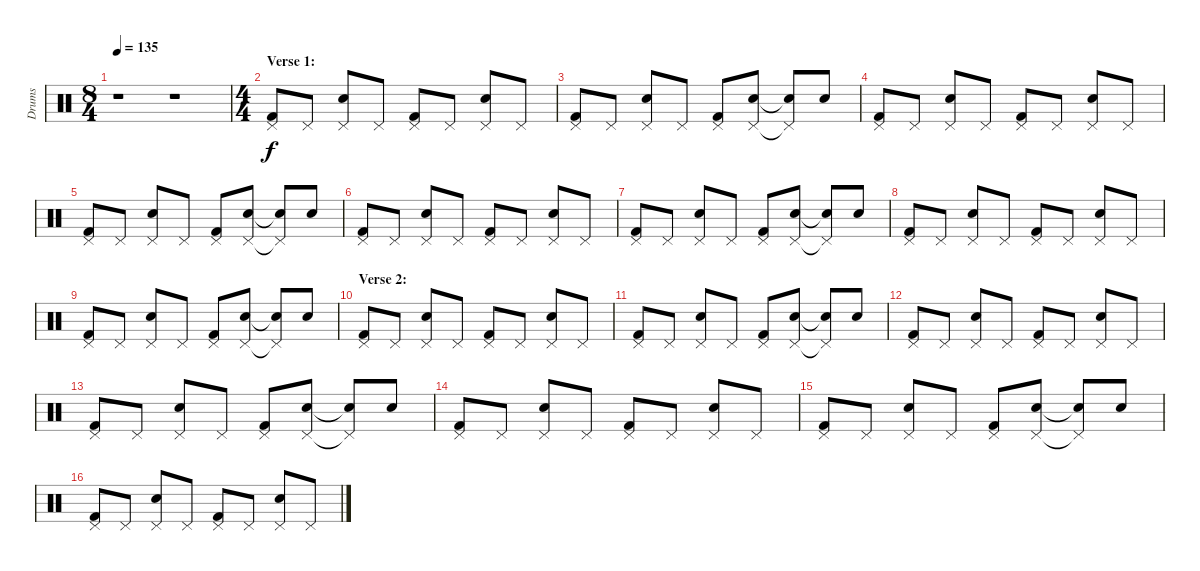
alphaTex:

\track ("Drums" "Drums") {instrument percussion}
\staff {score}
\articulation defaults
\ts (8 4)
\tempo 135
\clef neutral
\ks c
r.1{dy f} r.1 |
\ts (4 4)
\section ("" "Verse 1:")
("Pedal Hi-Hat (hit)" "Kick (hit) 2").8 "Pedal Hi-Hat (hit)".8 ("Pedal Hi-Hat (hit)" "Snare (hit) 2").8 "Pedal Hi-Hat (hit)".8 ("Pedal Hi-Hat (hit)" "Kick (hit) 2").8 "Pedal Hi-Hat (hit)".8 ("Pedal Hi-Hat (hit)" "Snare (hit) 2").8 "Pedal Hi-Hat (hit)".8 |
("Pedal Hi-Hat (hit)" "Kick (hit) 2").8 "Pedal Hi-Hat (hit)".8 ("Pedal Hi-Hat (hit)" "Snare (hit) 2").8 "Pedal Hi-Hat (hit)".8 ("Pedal Hi-Hat (hit)" "Kick (hit) 2").8 ("Pedal Hi-Hat (hit)" "Snare (hit) 2").8 ("Pedal Hi-Hat (hit)"{t} "Snare (hit)"{t}).8 "Snare (hit) 2".8 |
("Pedal Hi-Hat (hit)" "Kick (hit) 2").8 "Pedal Hi-Hat (hit)".8 ("Pedal Hi-Hat (hit)" "Snare (hit) 2").8 "Pedal Hi-Hat (hit)".8 ("Pedal Hi-Hat (hit)" "Kick (hit) 2").8 "Pedal Hi-Hat (hit)".8 ("Pedal Hi-Hat (hit)" "Snare (hit) 2").8 "Pedal Hi-Hat (hit)".8 |
("Pedal Hi-Hat (hit)" "Kick (hit) 2").8 "Pedal Hi-Hat (hit)".8 ("Pedal Hi-Hat (hit)" "Snare (hit) 2").8 "Pedal Hi-Hat (hit)".8 ("Pedal Hi-Hat (hit)" "Kick (hit) 2").8 ("Pedal Hi-Hat (hit)" "Snare (hit) 2").8 ("Pedal Hi-Hat (hit)"{t} "Snare (hit)"{t}).8 "Snare (hit) 2".8 |
("Pedal Hi-Hat (hit)" "Kick (hit) 2").8 "Pedal Hi-Hat (hit)".8 ("Pedal Hi-Hat (hit)" "Snare (hit) 2").8 "Pedal Hi-Hat (hit)".8 ("Pedal Hi-Hat (hit)" "Kick (hit) 2").8 "Pedal Hi-Hat (hit)".8 ("Pedal Hi-Hat (hit)" "Snare (hit) 2").8 "Pedal Hi-Hat (hit)".8 |
("Pedal Hi-Hat (hit)" "Kick (hit) 2").8 "Pedal Hi-Hat (hit)".8 ("Pedal Hi-Hat (hit)" "Snare (hit) 2").8 "Pedal Hi-Hat (hit)".8 ("Pedal Hi-Hat (hit)" "Kick (hit) 2").8 ("Pedal Hi-Hat (hit)" "Snare (hit) 2").8 ("Pedal Hi-Hat (hit)"{t} "Snare (hit)"{t}).8 "Snare (hit) 2".8 |
("Pedal Hi-Hat (hit)" "Kick (hit) 2").8 "Pedal Hi-Hat (hit)".8 ("Pedal Hi-Hat (hit)" "Snare (hit) 2").8 "Pedal Hi-Hat (hit)".8 ("Pedal Hi-Hat (hit)" "Kick (hit) 2").8 "Pedal Hi-Hat (hit)".8 ("Pedal Hi-Hat (hit)" "Snare (hit) 2").8 "Pedal Hi-Hat (hit)".8 |
("Pedal Hi-Hat (hit)" "Kick (hit) 2").8 "Pedal Hi-Hat (hit)".8 ("Pedal Hi-Hat (hit)" "Snare (hit) 2").8 "Pedal Hi-Hat (hit)".8 ("Pedal Hi-Hat (hit)" "Kick (hit) 2").8 ("Pedal Hi-Hat (hit)" "Snare (hit) 2").8 ("Pedal Hi-Hat (hit)"{t} "Snare (hit)"{t}).8 "Snare (hit) 2".8 |
\section ("" "Verse 2:")
("Pedal Hi-Hat (hit)" "Kick (hit) 2").8 "Pedal Hi-Hat (hit)".8 ("Pedal Hi-Hat (hit)" "Snare (hit) 2").8 "Pedal Hi-Hat (hit)".8 ("Pedal Hi-Hat (hit)" "Kick (hit) 2").8 "Pedal Hi-Hat (hit)".8 ("Pedal Hi-Hat (hit)" "Snare (hit) 2").8 "Pedal Hi-Hat (hit)".8 |
("Pedal Hi-Hat (hit)" "Kick (hit) 2").8 "Pedal Hi-Hat (hit)".8 ("Pedal Hi-Hat (hit)" "Snare (hit) 2").8 "Pedal Hi-Hat (hit)".8 ("Pedal Hi-Hat (hit)" "Kick (hit) 2").8 ("Pedal Hi-Hat (hit)" "Snare (hit) 2").8 ("Pedal Hi-Hat (hit)"{t} "Snare (hit)"{t}).8 "Snare (hit) 2".8 |
("Pedal Hi-Hat (hit)" "Kick (hit) 2").8 "Pedal Hi-Hat (hit)".8 ("Pedal Hi-Hat (hit)" "Snare (hit) 2").8 "Pedal Hi-Hat (hit)".8 ("Pedal Hi-Hat (hit)" "Kick (hit) 2").8 "Pedal Hi-Hat (hit)".8 ("Pedal Hi-Hat (hit)" "Snare (hit) 2").8 "Pedal Hi-Hat (hit)".8 |
("Pedal Hi-Hat (hit)" "Kick (hit) 2").8 "Pedal Hi-Hat (hit)".8 ("Pedal Hi-Hat (hit)" "Snare (hit) 2").8 "Pedal Hi-Hat (hit)".8 ("Pedal Hi-Hat (hit)" "Kick (hit) 2").8 ("Pedal Hi-Hat (hit)" "Snare (hit) 2").8 ("Pedal Hi-Hat (hit)"{t} "Snare (hit)"{t}).8 "Snare (hit) 2".8 |
("Pedal Hi-Hat (hit)" "Kick (hit) 2").8 "Pedal Hi-Hat (hit)".8 ("Pedal Hi-Hat (hit)" "Snare (hit) 2").8 "Pedal Hi-Hat (hit)".8 ("Pedal Hi-Hat (hit)" "Kick (hit) 2").8 "Pedal Hi-Hat (hit)".8 ("Pedal Hi-Hat (hit)" "Snare (hit) 2").8 "Pedal Hi-Hat (hit)".8 |
("Pedal Hi-Hat (hit)" "Kick (hit) 2").8 "Pedal Hi-Hat (hit)".8 ("Pedal Hi-Hat (hit)" "Snare (hit) 2").8 "Pedal Hi-Hat (hit)".8 ("Pedal Hi-Hat (hit)" "Kick (hit) 2").8 ("Pedal Hi-Hat (hit)" "Snare (hit) 2").8 ("Pedal Hi-Hat (hit)"{t} "Snare (hit)"{t}).8 "Snare (hit) 2".8 |
("Pedal Hi-Hat (hit)" "Kick (hit) 2").8 "Pedal Hi-Hat (hit)".8 ("Pedal Hi-Hat (hit)" "Snare (hit) 2").8 "Pedal Hi-Hat (hit)".8 ("Pedal Hi-Hat (hit)" "Kick (hit) 2").8 "Pedal Hi-Hat (hit)".8 ("Pedal Hi-Hat (hit)" "Snare (hit) 2").8 "Pedal Hi-Hat (hit)".8
